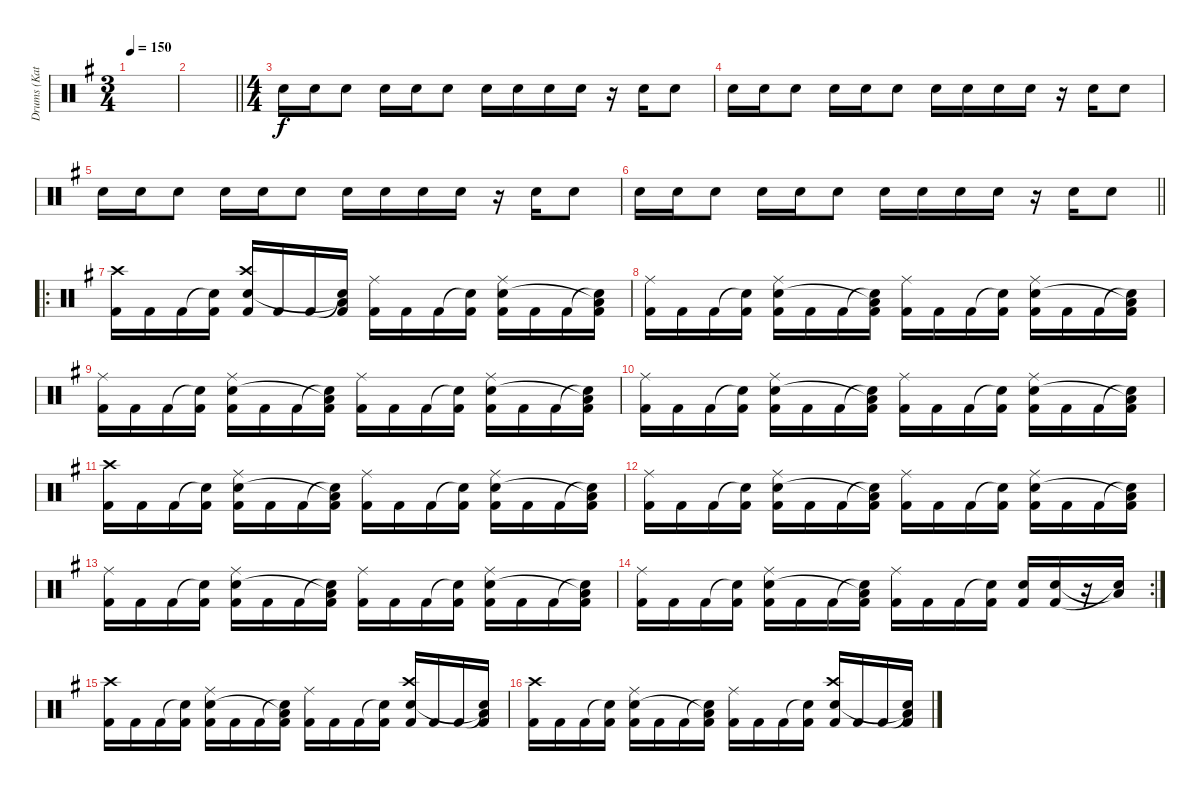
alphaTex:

\track ("Drums (Katsuji)" "Drums (Kat") {instrument percussion}
\staff {score}
\articulation defaults
\ts (3 4)
\tempo 150
\clef neutral
\ks g
|
\barLineRight lightlight
|
\ts (4 4)
"Snare (hit) 2".16 "Snare (hit) 2".16 "Snare (hit) 2".8 "Snare (hit) 2".16 "Snare (hit) 2".16 "Snare (hit) 2".8 "Snare (hit) 2".16 "Snare (hit) 2".16 "Snare (hit) 2".16 "Snare (hit) 2".16 r.16 "Snare (hit) 2".16 "Snare (hit) 2".8 |
"Snare (hit) 2".16 "Snare (hit) 2".16 "Snare (hit) 2".8 "Snare (hit) 2".16 "Snare (hit) 2".16 "Snare (hit) 2".8 "Snare (hit) 2".16 "Snare (hit) 2".16 "Snare (hit) 2".16 "Snare (hit) 2".16 r.16 "Snare (hit) 2".16 "Snare (hit) 2".8 |
"Snare (hit) 2".16 "Snare (hit) 2".16 "Snare (hit) 2".8 "Snare (hit) 2".16 "Snare (hit) 2".16 "Snare (hit) 2".8 "Snare (hit) 2".16 "Snare (hit) 2".16 "Snare (hit) 2".16 "Snare (hit) 2".16 r.16 "Snare (hit) 2".16 "Snare (hit) 2".8 |
\barLineRight lightlight "Snare (hit) 2".16 "Snare (hit) 2".16 "Snare (hit) 2".8 "Snare (hit) 2".16 "Snare (hit) 2".16 "Snare (hit) 2".8 "Snare (hit) 2".16 "Snare (hit) 2".16 "Snare (hit) 2".16 "Snare (hit) 2".16
r.16 "Snare (hit) 2".16 "Snare (hit) 2".8 |
\ro
("Crash high (hit)" "Kick (hit) 2").16 "Kick (hit) 2".16 "Kick (hit) 2".16 ("Snare (hit)"{t} "Kick (hit) 2").16 ("Crash high (hit)" "Snare (hit) 2" "Kick (hit) 2").16 "Kick (hit) 2".16 "Kick (hit) 2".16 ("Snare (hit)"{t} "Low Floor Tom (hit)"{t} "Kick (hit) 2").16 ("Ride (middle)" "Kick (hit) 2").16 "Kick (hit) 2".16 "Kick (hit) 2".16 ("Snare (hit)"{t} "Kick (hit) 2").16 ("Ride (middle)" "Snare (hit) 2" "Kick (hit) 2").16 "Kick (hit) 2".16 "Kick (hit) 2".16 ("Snare (hit)"{t} "Low Floor Tom (hit)"{t} "Kick (hit) 2").16 |
("Ride (middle)" "Kick (hit) 2").16 "Kick (hit) 2".16 "Kick (hit) 2".16 ("Snare (hit)"{t} "Kick (hit) 2").16 ("Ride (middle)" "Snare (hit) 2" "Kick (hit) 2").16 "Kick (hit) 2".16 "Kick (hit) 2".16 ("Snare (hit)"{t} "Low Floor Tom (hit)"{t} "Kick (hit) 2").16 ("Ride (middle)" "Kick (hit) 2").16 "Kick (hit) 2".16 "Kick (hit) 2".16 ("Snare (hit)"{t} "Kick (hit) 2").16 ("Ride (middle)" "Snare (hit) 2" "Kick (hit) 2").16 "Kick (hit) 2".16 "Kick (hit) 2".16 ("Snare (hit)"{t} "Low Floor Tom (hit)"{t} "Kick (hit) 2").16 |
("Ride (middle)" "Kick (hit) 2").16 "Kick (hit) 2".16 "Kick (hit) 2".16 ("Snare (hit)"{t} "Kick (hit) 2").16 ("Ride (middle)" "Snare (hit) 2" "Kick (hit) 2").16 "Kick (hit) 2".16 "Kick (hit) 2".16 ("Snare (hit)"{t} "Low Floor Tom (hit)"{t} "Kick (hit) 2").16 ("Ride (middle)" "Kick (hit) 2").16 "Kick (hit) 2".16 "Kick (hit) 2".16 ("Snare (hit)"{t} "Kick (hit) 2").16 ("Ride (middle)" "Snare (hit) 2" "Kick (hit) 2").16 "Kick (hit) 2".16 "Kick (hit) 2".16 ("Snare (hit)"{t} "Low Floor Tom (hit)"{t} "Kick (hit) 2").16 |
("Ride (middle)" "Kick (hit) 2").16 "Kick (hit) 2".16 "Kick (hit) 2".16 ("Snare (hit)"{t} "Kick (hit) 2").16 ("Ride (middle)" "Snare (hit) 2" "Kick (hit) 2").16 "Kick (hit) 2".16 "Kick (hit) 2".16 ("Snare (hit)"{t} "Low Floor Tom (hit)"{t} "Kick (hit) 2").16 ("Ride (middle)" "Kick (hit) 2").16 "Kick (hit) 2".16 "Kick (hit) 2".16 ("Snare (hit)"{t} "Kick (hit) 2").16 ("Ride (middle)" "Snare (hit) 2" "Kick (hit) 2").16 "Kick (hit) 2".16 "Kick (hit) 2".16 ("Snare (hit)"{t} "Low Floor Tom (hit)"{t} "Kick (hit) 2").16 |
("Crash high (hit)" "Kick (hit) 2").16 "Kick (hit) 2".16 "Kick (hit) 2".16 ("Snare (hit)"{t} "Kick (hit) 2").16 ("Ride (middle)" "Snare (hit) 2" "Kick (hit) 2").16 "Kick (hit) 2".16 "Kick (hit) 2".16 ("Snare (hit)"{t} "Low Floor Tom (hit)"{t} "Kick (hit) 2").16 ("Ride (middle)" "Kick (hit) 2").16 "Kick (hit) 2".16 "Kick (hit) 2".16 ("Snare (hit)"{t} "Kick (hit) 2").16 ("Ride (middle)" "Snare (hit) 2" "Kick (hit) 2").16 "Kick (hit) 2".16 "Kick (hit) 2".16 ("Snare (hit)"{t} "Low Floor Tom (hit)"{t} "Kick (hit) 2").16 |
("Ride (middle)" "Kick (hit) 2").16 "Kick (hit) 2".16 "Kick (hit) 2".16 ("Snare (hit)"{t} "Kick (hit) 2").16 ("Ride (middle)" "Snare (hit) 2" "Kick (hit) 2").16 "Kick (hit) 2".16 "Kick (hit) 2".16 ("Snare (hit)"{t} "Low Floor Tom (hit)"{t} "Kick (hit) 2").16 ("Ride (middle)" "Kick (hit) 2").16 "Kick (hit) 2".16 "Kick (hit) 2".16 ("Snare (hit)"{t} "Kick (hit) 2").16 ("Ride (middle)" "Snare (hit) 2" "Kick (hit) 2").16 "Kick (hit) 2".16 "Kick (hit) 2".16 ("Snare (hit)"{t} "Low Floor Tom (hit)"{t} "Kick (hit) 2").16 |
("Ride (middle)" "Kick (hit) 2").16 "Kick (hit) 2".16 "Kick (hit) 2".16 ("Snare (hit)"{t} "Kick (hit) 2").16 ("Ride (middle)" "Snare (hit) 2" "Kick (hit) 2").16 "Kick (hit) 2".16 "Kick (hit) 2".16 ("Snare (hit)"{t} "Low Floor Tom (hit)"{t} "Kick (hit) 2").16 ("Ride (middle)" "Kick (hit) 2").16 "Kick (hit) 2".16 "Kick (hit) 2".16 ("Snare (hit)"{t} "Kick (hit) 2").16 ("Ride (middle)" "Snare (hit) 2" "Kick (hit) 2").16 "Kick (hit) 2".16 "Kick (hit) 2".16 ("Snare (hit)"{t} "Low Floor Tom (hit)"{t} "Kick (hit) 2").16 |
\rc 2
("Ride (middle)" "Kick (hit) 2").16 "Kick (hit) 2".16 "Kick (hit) 2".16 ("Snare (hit)"{t} "Kick (hit) 2").16 ("Ride (middle)" "Snare (hit) 2" "Kick (hit) 2").16 "Kick (hit) 2".16 "Kick (hit) 2".16 ("Snare (hit)"{t} "Low Floor Tom (hit)"{t} "Kick (hit) 2").16 ("Ride (middle)" "Kick (hit) 2").16 "Kick (hit) 2".16 "Kick (hit) 2".16 ("Snare (hit)"{t} "Kick (hit) 2").16 ("Snare (hit) 2" "Kick (hit) 2").16 ("Snare (hit) 2" "Kick (hit) 2").16 r.16 ("Low Floor Tom (hit)"{t} "Snare (hit)"{t}).16 |
("Crash high (hit)" "Kick (hit) 2").16 "Kick (hit) 2".16 "Kick (hit) 2".16 ("Snare (hit)"{t} "Kick (hit) 2").16 ("Ride (middle)" "Snare (hit) 2" "Kick (hit) 2").16 "Kick (hit) 2".16 "Kick (hit) 2".16 ("Snare (hit)"{t} "Low Floor Tom (hit)"{t} "Kick (hit) 2").16 ("Ride (middle)" "Kick (hit) 2").16 "Kick (hit) 2".16 "Kick (hit) 2".16 ("Snare (hit)"{t} "Kick (hit) 2").16 ("Crash high (hit)" "Snare (hit) 2" "Kick (hit) 2").16 "Kick (hit) 2".16 "Kick (hit) 2".16 ("Snare (hit)"{t} "Low Floor Tom (hit)"{t} "Kick (hit) 2").16 |
("Crash high (hit)" "Kick (hit) 2").16 "Kick (hit) 2".16 "Kick (hit) 2".16 ("Snare (hit)"{t} "Kick (hit) 2").16 ("Ride (middle)" "Snare (hit) 2" "Kick (hit) 2").16 "Kick (hit) 2".16 "Kick (hit) 2".16 ("Snare (hit)"{t} "Low Floor Tom (hit)"{t} "Kick (hit) 2").16 ("Ride (middle)" "Kick (hit) 2").16 "Kick (hit) 2".16 "Kick (hit) 2".16 ("Snare (hit)"{t} "Kick (hit) 2").16 ("Crash high (hit)" "Snare (hit) 2" "Kick (hit) 2").16 "Kick (hit) 2".16 "Kick (hit) 2".16 ("Snare (hit)"{t} "Low Floor Tom (hit)"{t} "Kick (hit) 2").16
